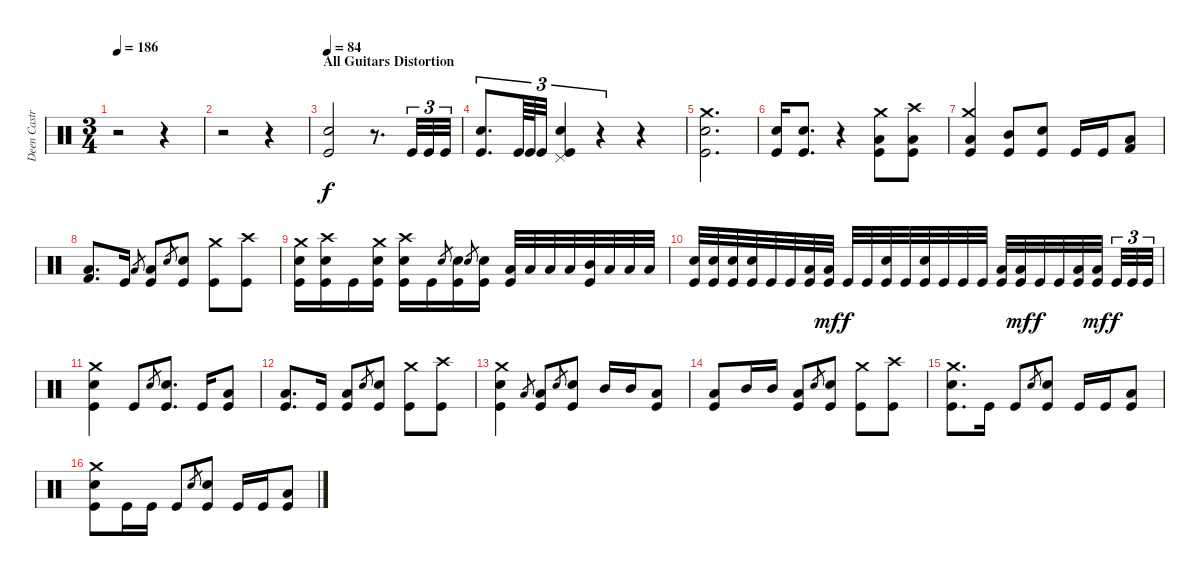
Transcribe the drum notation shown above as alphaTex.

\track ("Deen Castronovo" "Deen Castr") {instrument percussion}
\staff {score}
\articulation defaults
\ts (3 4)
\tempo 186
\clef neutral
\ks c
r.2{dy f} r.4 |
r.2 r.4 |
\section ("" "All Guitars Distortion")
\tempo 84
("Snare (hit) 2" "Kick (hit)").2 r.8{d} "Kick (hit)".32{tu (3 2)} "Kick (hit)".32{tu (3 2)} "Kick (hit)".32{tu (3 2)} |
("Snare (hit) 2" "Kick (hit)").8{d tu (3 2)} "Kick (hit)".64{tu (3 2)} "Kick (hit)".64{tu (3 2)} "Kick (hit)".32{tu (3 2)} ("Pedal Hi-Hat (hit)" "Snare (hit) 2" "Kick (hit)").4{tu (3 2)} r.4{tu (3 2)} r.4 |
("Crash medium (hit)" "Snare (hit) 2" "Kick (hit)").2{d} |
("Snare (hit) 2" "Kick (hit)").16 ("Snare (hit) 2" "Kick (hit)").8{d} r.4 ("Crash medium (hit)" "Low Tom (hit)" "Kick (hit)").8 ("Crash high (hit)" "Low Tom (hit)" "Kick (hit)").8 |
("Crash medium (hit)" "Low Tom (hit)" "Kick (hit)").4 ("Mid Tom (hit)" "Kick (hit)").8 ("Snare (hit) 2" "Kick (hit)").8 "Kick (hit)".16 "Kick (hit)".16 ("Low Tom (hit)" "Kick (hit) 2").8 |
("Low Tom (hit)" "Kick (hit) 2").8{d} "Kick (hit)".16 "Low Tom (hit)".8{gr} ("Low Tom (hit)" "Kick (hit)").8 "Snare (hit) 2".8{gr} ("Snare (hit) 2" "Kick (hit)").8 ("Crash medium (hit)" "Kick (hit)").8 ("Crash high (hit)" "Kick (hit)").8 |
("Crash medium (hit)" "Snare (hit) 2" "Kick (hit)").16 ("Crash high (hit)" "Snare (hit) 2" "Kick (hit)").16 "Kick (hit)".16 ("Crash medium (hit)" "Snare (hit) 2" "Kick (hit)").16 ("Crash high (hit)" "Snare (hit) 2" "Kick (hit)").16 "Kick (hit)".16 "Snare (hit) 2".8{gr} ("Snare (hit) 2" "Kick (hit)").16 "Snare (hit) 2".8{gr} ("Snare (hit) 2" "Kick (hit)").16 ("Low Tom (hit)" "Kick (hit)").32 "Low Tom (hit)".32 "Low Tom (hit)".32 "Low Tom (hit)".32 ("Mid Tom (hit)" "Kick (hit)").32 "Low Tom (hit)".32 "Low Tom (hit)".32 "Low Tom (hit)".32 |
("Snare (hit) 2" "Kick (hit)").32 ("Snare (hit) 2" "Kick (hit)").32 ("Snare (hit) 2" "Kick (hit)").32 ("Snare (hit) 2" "Kick (hit)").32 "Kick (hit)".32 "Kick (hit)".32 ("Low Tom (hit)" "Kick (hit)").32 ("Low Tom (hit)" "Kick (hit)").32{dy mf} "Kick (hit)".32{dy f} "Kick (hit)".32 ("Snare (hit) 2" "Kick (hit)").32 "Kick (hit)".32 ("Snare (hit) 2" "Kick (hit)").32 "Kick (hit)".32 "Kick (hit)".32 "Kick (hit)".32 ("Low Tom (hit)" "Kick (hit)").32 ("Low Tom (hit)" "Kick (hit)").32{dy mf} "Kick (hit)".32{dy f} "Kick (hit)".32 ("Low Tom (hit)" "Kick (hit)").32 ("Low Tom (hit)" "Kick (hit)").32{dy mf} "Kick (hit)".32{tu (3 2) dy f} "Kick (hit)".32{tu (3 2)} "Kick (hit)".32{tu (3 2)} |
("Crash medium (hit)" "Snare (hit) 2" "Kick (hit)").4 "Kick (hit)".8 "Snare (hit) 2".8{gr} ("Snare (hit) 2" "Kick (hit)").8{d} "Kick (hit)".16 ("Low Tom (hit)" "Kick (hit)").8 |
("Low Tom (hit)" "Kick (hit)").8{d} "Kick (hit)".16 ("Low Tom (hit)" "Kick (hit)").8 "Snare (hit) 2".8{gr} ("Snare (hit) 2" "Kick (hit)").8 ("Crash medium (hit)" "Kick (hit)").8 ("Crash high (hit)" "Kick (hit)").8 |
("Crash medium (hit)" "Snare (hit) 2" "Kick (hit)").4 "Low Tom (hit)".8{gr} ("Low Tom (hit)" "Kick (hit)").8 "Snare (hit) 2".8{gr} ("Snare (hit) 2" "Kick (hit)").8 "Mid Tom (hit)".16 "Mid Tom (hit)".16 ("Low Tom (hit)" "Kick (hit)").8 |
("Low Tom (hit)" "Kick (hit)").8 "Mid Tom (hit)".16 "Mid Tom (hit)".16 ("Low Tom (hit)" "Kick (hit)").8 "Snare (hit) 2".8{gr} ("Snare (hit) 2" "Kick (hit)").8 ("Crash medium (hit)" "Kick (hit)").8 ("Crash high (hit)" "Kick (hit)").8 |
("Crash medium (hit)" "Snare (hit) 2" "Kick (hit)").8{d} "Kick (hit)".16 "Kick (hit)".8 "Snare (hit) 2".8{gr} ("Snare (hit) 2" "Kick (hit)").8 "Kick (hit)".16 "Kick (hit)".16 ("Low Tom (hit)" "Kick (hit)").8 |
("Crash medium (hit)" "Snare (hit) 2" "Kick (hit)").8 "Kick (hit)".16 "Kick (hit)".16 "Kick (hit)".8 "Snare (hit) 2".8{gr} ("Snare (hit) 2" "Kick (hit)").8 "Kick (hit)".16 "Kick (hit)".16 ("Low Tom (hit)" "Kick (hit)").8
